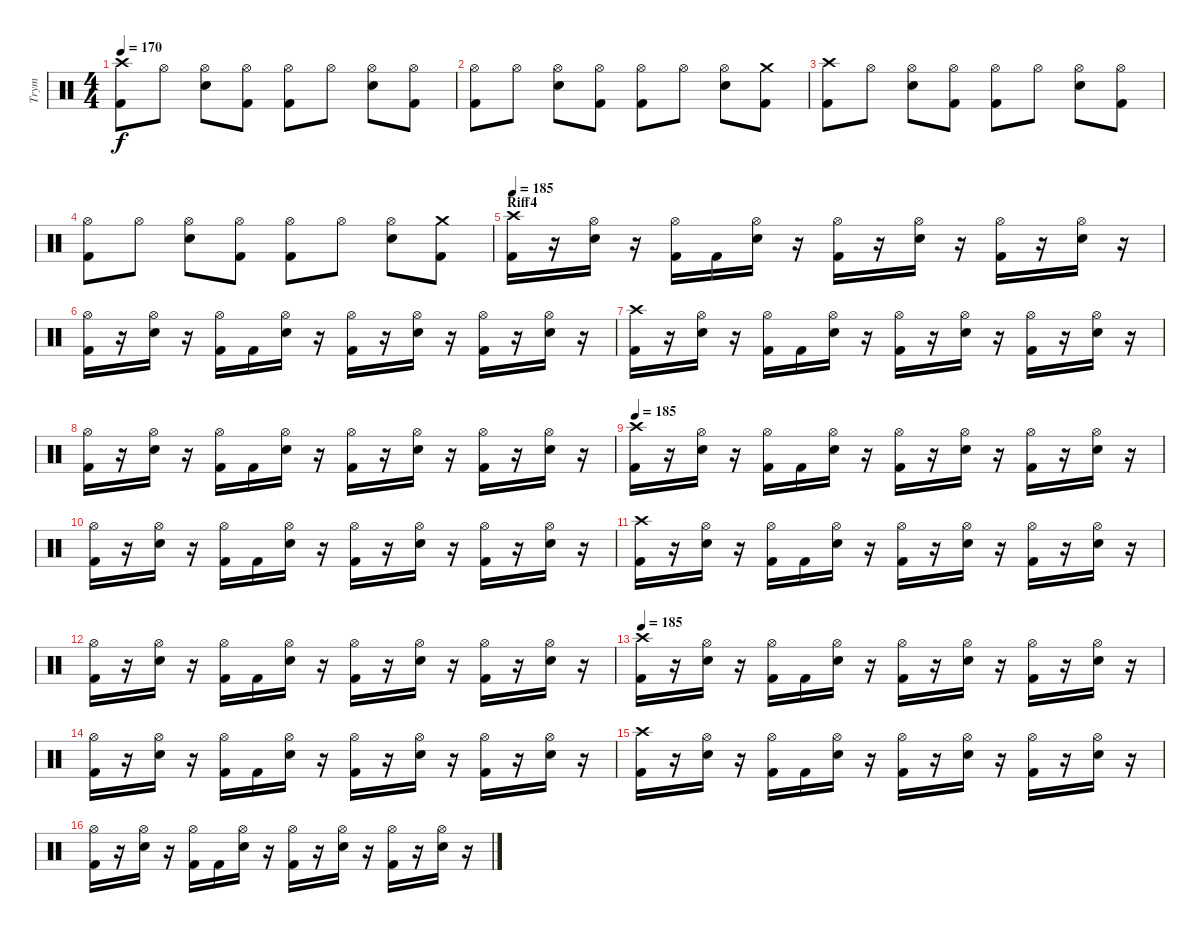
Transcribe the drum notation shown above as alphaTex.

\track ("Trym" "Trym") {instrument percussion}
\staff {score}
\articulation defaults
\ts (4 4)
\tempo 170
\clef neutral
\ks c
("Kick (hit) 2" "Crash high (hit)").8{dy f} "Hi-Hat (open)".8 ("Electric Snare (hit)" "Hi-Hat (open)").8 ("Kick (hit) 2" "Hi-Hat (open)").8 ("Kick (hit) 2" "Hi-Hat (open)").8 "Hi-Hat (open)".8 ("Electric Snare (hit)" "Hi-Hat (open)").8 ("Kick (hit) 2" "Hi-Hat (open)").8 |
("Kick (hit) 2" "Hi-Hat (open)").8 "Hi-Hat (open)".8 ("Electric Snare (hit)" "Hi-Hat (open)").8 ("Kick (hit) 2" "Hi-Hat (open)").8 ("Kick (hit) 2" "Hi-Hat (open)").8 "Hi-Hat (open)".8 ("Electric Snare (hit)" "Hi-Hat (open)").8 ("Kick (hit) 2" "Crash medium (hit)").8 |
("Kick (hit) 2" "Crash high (hit)").8 "Hi-Hat (open)".8 ("Electric Snare (hit)" "Hi-Hat (open)").8 ("Kick (hit) 2" "Hi-Hat (open)").8 ("Kick (hit) 2" "Hi-Hat (open)").8 "Hi-Hat (open)".8 ("Electric Snare (hit)" "Hi-Hat (open)").8 ("Kick (hit) 2" "Hi-Hat (open)").8 |
("Kick (hit) 2" "Hi-Hat (open)").8 "Hi-Hat (open)".8 ("Electric Snare (hit)" "Hi-Hat (open)").8 ("Kick (hit) 2" "Hi-Hat (open)").8 ("Kick (hit) 2" "Hi-Hat (open)").8 "Hi-Hat (open)".8 ("Electric Snare (hit)" "Hi-Hat (open)").8 ("Kick (hit) 2" "Crash medium (hit)").8 |
\section ("" "Riff4")
\tempo 185
("Kick (hit) 2" "Crash high (hit)").16 r.16 ("Electric Snare (hit)" "Hi-Hat (open)").16 r.16 ("Kick (hit) 2" "Hi-Hat (open)").16 "Kick (hit) 2".16 ("Electric Snare (hit)" "Hi-Hat (open)").16 r.16 ("Kick (hit) 2" "Hi-Hat (open)").16 r.16 ("Electric Snare (hit)" "Hi-Hat (open)").16 r.16 ("Kick (hit) 2" "Hi-Hat (open)").16 r.16 ("Electric Snare (hit)" "Hi-Hat (open)").16 r.16 |
("Kick (hit) 2" "Hi-Hat (open)").16 r.16 ("Electric Snare (hit)" "Hi-Hat (open)").16 r.16 ("Kick (hit) 2" "Hi-Hat (open)").16 "Kick (hit) 2".16 ("Electric Snare (hit)" "Hi-Hat (open)").16 r.16 ("Kick (hit) 2" "Hi-Hat (open)").16 r.16 ("Electric Snare (hit)" "Hi-Hat (open)").16 r.16 ("Kick (hit) 2" "Hi-Hat (open)").16 r.16 ("Electric Snare (hit)" "Hi-Hat (open)").16 r.16 |
("Kick (hit) 2" "Crash high (hit)").16 r.16 ("Electric Snare (hit)" "Hi-Hat (open)").16 r.16 ("Kick (hit) 2" "Hi-Hat (open)").16 "Kick (hit) 2".16 ("Electric Snare (hit)" "Hi-Hat (open)").16 r.16 ("Kick (hit) 2" "Hi-Hat (open)").16 r.16 ("Electric Snare (hit)" "Hi-Hat (open)").16 r.16 ("Kick (hit) 2" "Hi-Hat (open)").16 r.16 ("Electric Snare (hit)" "Hi-Hat (open)").16 r.16 |
("Kick (hit) 2" "Hi-Hat (open)").16 r.16 ("Electric Snare (hit)" "Hi-Hat (open)").16 r.16 ("Kick (hit) 2" "Hi-Hat (open)").16 "Kick (hit) 2".16 ("Electric Snare (hit)" "Hi-Hat (open)").16 r.16 ("Kick (hit) 2" "Hi-Hat (open)").16 r.16 ("Electric Snare (hit)" "Hi-Hat (open)").16 r.16 ("Kick (hit) 2" "Hi-Hat (open)").16 r.16 ("Electric Snare (hit)" "Hi-Hat (open)").16 r.16 |
\tempo 185
("Kick (hit) 2" "Crash high (hit)").16 r.16 ("Electric Snare (hit)" "Hi-Hat (open)").16 r.16 ("Kick (hit) 2" "Hi-Hat (open)").16 "Kick (hit) 2".16 ("Electric Snare (hit)" "Hi-Hat (open)").16 r.16 ("Kick (hit) 2" "Hi-Hat (open)").16 r.16 ("Electric Snare (hit)" "Hi-Hat (open)").16 r.16 ("Kick (hit) 2" "Hi-Hat (open)").16 r.16 ("Electric Snare (hit)" "Hi-Hat (open)").16 r.16 |
("Kick (hit) 2" "Hi-Hat (open)").16 r.16 ("Electric Snare (hit)" "Hi-Hat (open)").16 r.16 ("Kick (hit) 2" "Hi-Hat (open)").16 "Kick (hit) 2".16 ("Electric Snare (hit)" "Hi-Hat (open)").16 r.16 ("Kick (hit) 2" "Hi-Hat (open)").16 r.16 ("Electric Snare (hit)" "Hi-Hat (open)").16 r.16 ("Kick (hit) 2" "Hi-Hat (open)").16 r.16 ("Electric Snare (hit)" "Hi-Hat (open)").16 r.16 |
("Kick (hit) 2" "Crash high (hit)").16 r.16 ("Electric Snare (hit)" "Hi-Hat (open)").16 r.16 ("Kick (hit) 2" "Hi-Hat (open)").16 "Kick (hit) 2".16 ("Electric Snare (hit)" "Hi-Hat (open)").16 r.16 ("Kick (hit) 2" "Hi-Hat (open)").16 r.16 ("Electric Snare (hit)" "Hi-Hat (open)").16 r.16 ("Kick (hit) 2" "Hi-Hat (open)").16 r.16 ("Electric Snare (hit)" "Hi-Hat (open)").16 r.16 |
("Kick (hit) 2" "Hi-Hat (open)").16 r.16 ("Electric Snare (hit)" "Hi-Hat (open)").16 r.16 ("Kick (hit) 2" "Hi-Hat (open)").16 "Kick (hit) 2".16 ("Electric Snare (hit)" "Hi-Hat (open)").16 r.16 ("Kick (hit) 2" "Hi-Hat (open)").16 r.16 ("Electric Snare (hit)" "Hi-Hat (open)").16 r.16 ("Kick (hit) 2" "Hi-Hat (open)").16 r.16 ("Electric Snare (hit)" "Hi-Hat (open)").16 r.16 |
\tempo 185
("Kick (hit) 2" "Crash high (hit)").16 r.16 ("Electric Snare (hit)" "Hi-Hat (open)").16 r.16 ("Kick (hit) 2" "Hi-Hat (open)").16 "Kick (hit) 2".16 ("Electric Snare (hit)" "Hi-Hat (open)").16 r.16 ("Kick (hit) 2" "Hi-Hat (open)").16 r.16 ("Electric Snare (hit)" "Hi-Hat (open)").16 r.16 ("Kick (hit) 2" "Hi-Hat (open)").16 r.16 ("Electric Snare (hit)" "Hi-Hat (open)").16 r.16 |
("Kick (hit) 2" "Hi-Hat (open)").16 r.16 ("Electric Snare (hit)" "Hi-Hat (open)").16 r.16 ("Kick (hit) 2" "Hi-Hat (open)").16 "Kick (hit) 2".16 ("Electric Snare (hit)" "Hi-Hat (open)").16 r.16 ("Kick (hit) 2" "Hi-Hat (open)").16 r.16 ("Electric Snare (hit)" "Hi-Hat (open)").16 r.16 ("Kick (hit) 2" "Hi-Hat (open)").16 r.16 ("Electric Snare (hit)" "Hi-Hat (open)").16 r.16 |
("Kick (hit) 2" "Crash high (hit)").16 r.16 ("Electric Snare (hit)" "Hi-Hat (open)").16 r.16 ("Kick (hit) 2" "Hi-Hat (open)").16 "Kick (hit) 2".16 ("Electric Snare (hit)" "Hi-Hat (open)").16 r.16 ("Kick (hit) 2" "Hi-Hat (open)").16 r.16 ("Electric Snare (hit)" "Hi-Hat (open)").16 r.16 ("Kick (hit) 2" "Hi-Hat (open)").16 r.16 ("Electric Snare (hit)" "Hi-Hat (open)").16 r.16 |
("Kick (hit) 2" "Hi-Hat (open)").16 r.16 ("Electric Snare (hit)" "Hi-Hat (open)").16 r.16 ("Kick (hit) 2" "Hi-Hat (open)").16 "Kick (hit) 2".16 ("Electric Snare (hit)" "Hi-Hat (open)").16 r.16 ("Kick (hit) 2" "Hi-Hat (open)").16 r.16 ("Electric Snare (hit)" "Hi-Hat (open)").16 r.16 ("Kick (hit) 2" "Hi-Hat (open)").16 r.16 ("Electric Snare (hit)" "Hi-Hat (open)").16 r.16
